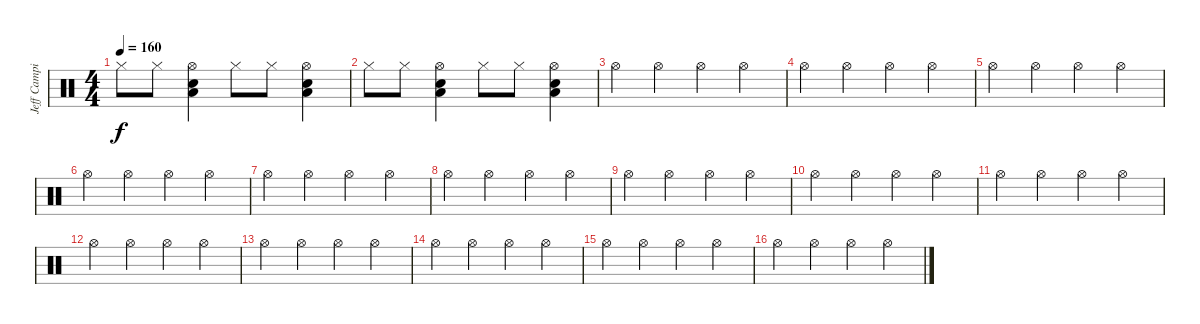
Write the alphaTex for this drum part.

\track ("Jeff Campitelli" "Jeff Campi") {instrument percussion}
\staff {score}
\articulation defaults
\ts (4 4)
\tempo 160
\clef neutral
\ks c "Hi-Hat (closed)".8{dy f} "Hi-Hat (closed)".8
("Low Floor Tom (hit)" "Snare (hit) 2" "Hi-Hat (open)").4 "Hi-Hat (closed)".8 "Hi-Hat (closed)".8 ("Low Floor Tom (hit)" "Snare (hit) 2" "Hi-Hat (open)").4 |
"Hi-Hat (closed)".8 "Hi-Hat (closed)".8 ("Low Floor Tom (hit)" "Snare (hit) 2" "Hi-Hat (open)").4 "Hi-Hat (closed)".8 "Hi-Hat (closed)".8 ("Low Floor Tom (hit)" "Snare (hit) 2" "Hi-Hat (open)").4 |
"Hi-Hat (open)".4 "Hi-Hat (open)".4 "Hi-Hat (open)".4 "Hi-Hat (open)".4 |
"Hi-Hat (open)".4 "Hi-Hat (open)".4 "Hi-Hat (open)".4 "Hi-Hat (open)".4 |
"Hi-Hat (open)".4 "Hi-Hat (open)".4 "Hi-Hat (open)".4 "Hi-Hat (open)".4 |
"Hi-Hat (open)".4 "Hi-Hat (open)".4 "Hi-Hat (open)".4 "Hi-Hat (open)".4 |
"Hi-Hat (open)".4 "Hi-Hat (open)".4 "Hi-Hat (open)".4 "Hi-Hat (open)".4 |
"Hi-Hat (open)".4 "Hi-Hat (open)".4 "Hi-Hat (open)".4 "Hi-Hat (open)".4 |
"Hi-Hat (open)".4 "Hi-Hat (open)".4 "Hi-Hat (open)".4 "Hi-Hat (open)".4 |
"Hi-Hat (open)".4 "Hi-Hat (open)".4 "Hi-Hat (open)".4 "Hi-Hat (open)".4 |
"Hi-Hat (open)".4 "Hi-Hat (open)".4 "Hi-Hat (open)".4 "Hi-Hat (open)".4 |
"Hi-Hat (open)".4 "Hi-Hat (open)".4 "Hi-Hat (open)".4 "Hi-Hat (open)".4 |
"Hi-Hat (open)".4 "Hi-Hat (open)".4 "Hi-Hat (open)".4 "Hi-Hat (open)".4 |
"Hi-Hat (open)".4 "Hi-Hat (open)".4 "Hi-Hat (open)".4 "Hi-Hat (open)".4 |
"Hi-Hat (open)".4 "Hi-Hat (open)".4 "Hi-Hat (open)".4 "Hi-Hat (open)".4 |
"Hi-Hat (open)".4 "Hi-Hat (open)".4 "Hi-Hat (open)".4 "Hi-Hat (open)".4
